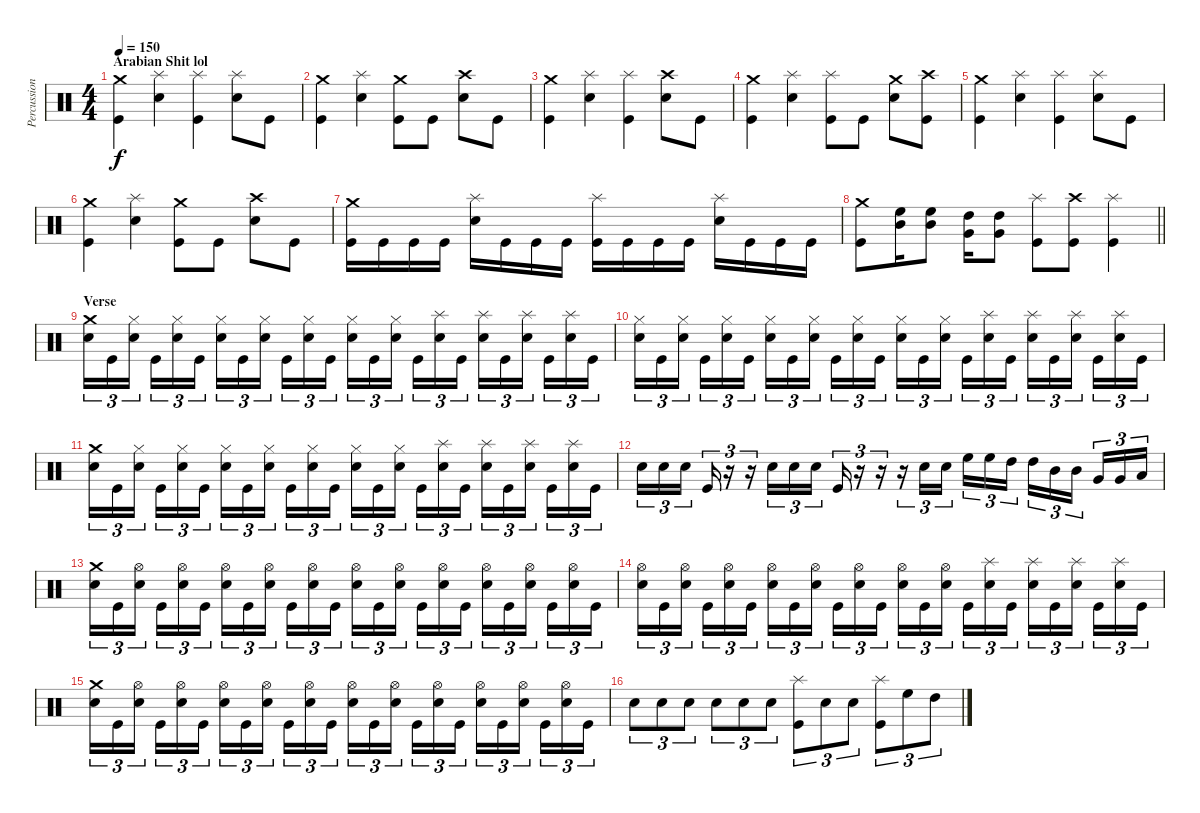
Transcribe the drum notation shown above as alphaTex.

\track ("Percussion" "Percussion") {instrument percussion}
\staff {score}
\articulation defaults
\ts (4 4)
\section ("" "Arabian Shit lol")
\tempo 150
\clef neutral
\ks c
("Crash medium (hit)" "Kick (hit)").4{dy f} ("Splash (hit)" "Snare (hit) 2").4 ("Splash (hit)" "Kick (hit)").4 ("Splash (hit)" "Snare (hit) 2").8 "Kick (hit)".8 |
("Crash medium (hit)" "Kick (hit)").4 ("Splash (hit)" "Snare (hit) 2").4 ("Crash medium (hit)" "Kick (hit)").8 "Kick (hit)".8 ("Crash high (hit)" "Snare (hit) 2").8 "Kick (hit)".8 |
("Crash medium (hit)" "Kick (hit)").4 ("Splash (hit)" "Snare (hit) 2").4 ("Splash (hit)" "Kick (hit)").4 ("Crash high (hit)" "Snare (hit) 2").8 "Kick (hit)".8 |
("Crash medium (hit)" "Kick (hit)").4 ("Splash (hit)" "Snare (hit) 2").4 ("Splash (hit)" "Kick (hit)").8 "Kick (hit)".8 ("Crash medium (hit)" "Snare (hit) 2").8 ("Crash high (hit)" "Kick (hit)").8 |
("Crash medium (hit)" "Kick (hit)").4 ("Splash (hit)" "Snare (hit) 2").4 ("Splash (hit)" "Kick (hit)").4 ("Splash (hit)" "Snare (hit) 2").8 "Kick (hit)".8 |
("Crash medium (hit)" "Kick (hit)").4 ("Splash (hit)" "Snare (hit) 2").4 ("Crash medium (hit)" "Kick (hit)").8 "Kick (hit)".8 ("Crash high (hit)" "Snare (hit) 2").8 "Kick (hit)".8 |
("Crash medium (hit)" "Kick (hit)").16 "Kick (hit)".16 "Kick (hit)".16 "Kick (hit)".16 ("Splash (hit)" "Snare (hit) 2").16 "Kick (hit)".16 "Kick (hit)".16 "Kick (hit)".16 ("Splash (hit)" "Kick (hit)").16 "Kick (hit)".16 "Kick (hit)".16 "Kick (hit)".16 ("Splash (hit)" "Snare (hit) 2").16 "Kick (hit)".16 "Kick (hit)".16 "Kick (hit)".16 |
\barLineRight lightlight
("Crash medium (hit)" "Kick (hit)").8 ("High Floor Tom (hit)" "Mid Tom (hit)").16 ("High Floor Tom (hit)" "Mid Tom (hit)").8 ("High Tom (hit)" "Very Low Tom (hit)").16 ("High Tom (hit)" "Very Low Tom (hit)").8 ("Splash (hit)" "Kick (hit)").8 ("Crash high (hit)" "Kick (hit)").8 ("Splash (hit)" "Kick (hit)").4 |
\section ("" "Verse")
("Crash medium (hit)" "Snare (hit) 2").16{tu (3 2)} "Kick (hit)".16{tu (3 2)} ("Hi-Hat (closed)" "Snare (hit) 2").16{tu (3 2) beam splitsecondary} "Kick (hit)".16{tu (3 2)} ("Hi-Hat (closed)" "Snare (hit) 2").16{tu (3 2)} "Kick (hit)".16{tu (3 2)} ("Hi-Hat (closed)" "Snare (hit) 2").16{tu (3 2)} "Kick (hit)".16{tu (3 2)} ("Hi-Hat (closed)" "Snare (hit) 2").16{tu (3 2) beam splitsecondary} "Kick (hit)".16{tu (3 2)} ("Hi-Hat (closed)" "Snare (hit) 2").16{tu (3 2)} "Kick (hit)".16{tu (3 2)} ("Hi-Hat (closed)" "Snare (hit) 2").16{tu (3 2)} "Kick (hit)".16{tu (3 2)} ("Hi-Hat (closed)" "Snare (hit) 2").16{tu (3 2) beam splitsecondary} "Kick (hit)".16{tu (3 2)} ("Splash (hit)" "Snare (hit) 2").16{tu (3 2)} "Kick (hit)".16{tu (3 2)} ("Splash (hit)" "Snare (hit) 2").16{tu (3 2)} "Kick (hit)".16{tu (3 2)} ("Splash (hit)" "Snare (hit) 2").16{tu (3 2) beam splitsecondary} "Kick (hit)".16{tu (3 2)} ("Splash (hit)" "Snare (hit) 2").16{tu (3 2)} "Kick (hit)".16{tu (3 2)} |
("Hi-Hat (closed)" "Snare (hit) 2").16{tu (3 2)} "Kick (hit)".16{tu (3 2)} ("Hi-Hat (closed)" "Snare (hit) 2").16{tu (3 2) beam splitsecondary} "Kick (hit)".16{tu (3 2)} ("Hi-Hat (closed)" "Snare (hit) 2").16{tu (3 2)} "Kick (hit)".16{tu (3 2)} ("Hi-Hat (closed)" "Snare (hit) 2").16{tu (3 2)} "Kick (hit)".16{tu (3 2)} ("Hi-Hat (closed)" "Snare (hit) 2").16{tu (3 2) beam splitsecondary} "Kick (hit)".16{tu (3 2)} ("Hi-Hat (closed)" "Snare (hit) 2").16{tu (3 2)} "Kick (hit)".16{tu (3 2)} ("Hi-Hat (closed)" "Snare (hit) 2").16{tu (3 2)} "Kick (hit)".16{tu (3 2)} ("Hi-Hat (closed)" "Snare (hit) 2").16{tu (3 2) beam splitsecondary} "Kick (hit)".16{tu (3 2)} ("Splash (hit)" "Snare (hit) 2").16{tu (3 2)} "Kick (hit)".16{tu (3 2)} ("Splash (hit)" "Snare (hit) 2").16{tu (3 2)} "Kick (hit)".16{tu (3 2)} ("Splash (hit)" "Snare (hit) 2").16{tu (3 2) beam splitsecondary} "Kick (hit)".16{tu (3 2)} ("Splash (hit)" "Snare (hit) 2").16{tu (3 2)} "Kick (hit)".16{tu (3 2)} |
("Crash medium (hit)" "Snare (hit) 2").16{tu (3 2)} "Kick (hit)".16{tu (3 2)} ("Hi-Hat (closed)" "Snare (hit) 2").16{tu (3 2) beam splitsecondary} "Kick (hit)".16{tu (3 2)} ("Hi-Hat (closed)" "Snare (hit) 2").16{tu (3 2)} "Kick (hit)".16{tu (3 2)} ("Hi-Hat (closed)" "Snare (hit) 2").16{tu (3 2)} "Kick (hit)".16{tu (3 2)} ("Hi-Hat (closed)" "Snare (hit) 2").16{tu (3 2) beam splitsecondary} "Kick (hit)".16{tu (3 2)} ("Hi-Hat (closed)" "Snare (hit) 2").16{tu (3 2)} "Kick (hit)".16{tu (3 2)} ("Hi-Hat (closed)" "Snare (hit) 2").16{tu (3 2)} "Kick (hit)".16{tu (3 2)} ("Hi-Hat (closed)" "Snare (hit) 2").16{tu (3 2) beam splitsecondary} "Kick (hit)".16{tu (3 2)} ("Splash (hit)" "Snare (hit) 2").16{tu (3 2)} "Kick (hit)".16{tu (3 2)} ("Splash (hit)" "Snare (hit) 2").16{tu (3 2)} "Kick (hit)".16{tu (3 2)} ("Splash (hit)" "Snare (hit) 2").16{tu (3 2) beam splitsecondary} "Kick (hit)".16{tu (3 2)} ("Splash (hit)" "Snare (hit) 2").16{tu (3 2)} "Kick (hit)".16{tu (3 2)} |
"Snare (hit) 2".16{tu (3 2)} "Snare (hit) 2".16{tu (3 2)} "Snare (hit) 2".16{tu (3 2) beam splitsecondary} "Kick (hit)".16{tu (3 2)} r.16{tu (3 2)} r.16{tu (3 2)} "Snare (hit) 2".16{tu (3 2)} "Snare (hit) 2".16{tu (3 2)} "Snare (hit) 2".16{tu (3 2) beam splitsecondary} "Kick (hit)".16{tu (3 2)} r.16{tu (3 2)} r.16{tu (3 2)} r.16{tu (3 2)} "Snare (hit) 2".16{tu (3 2)} "Snare (hit) 2".16{tu (3 2) beam splitsecondary} "High Floor Tom (hit)".16{tu (3 2)} "High Floor Tom (hit)".16{tu (3 2)} "High Tom (hit)".16{tu (3 2)} "High Tom (hit)".16{tu (3 2)} "Mid Tom (hit)".16{tu (3 2)} "Mid Tom (hit)".16{tu (3 2) beam splitsecondary} "Very Low Tom (hit)".16{tu (3 2)} "Very Low Tom (hit)".16{tu (3 2)} "Low Floor Tom (hit)".16{tu (3 2)} |
("Crash medium (hit)" "Snare (hit) 2").16{tu (3 2)} "Kick (hit)".16{tu (3 2)} ("Hi-Hat (open)" "Snare (hit) 2").16{tu (3 2) beam splitsecondary} "Kick (hit)".16{tu (3 2)} ("Hi-Hat (open)" "Snare (hit) 2").16{tu (3 2)} "Kick (hit)".16{tu (3 2)} ("Hi-Hat (open)" "Snare (hit) 2").16{tu (3 2)} "Kick (hit)".16{tu (3 2)} ("Hi-Hat (open)" "Snare (hit) 2").16{tu (3 2) beam splitsecondary} "Kick (hit)".16{tu (3 2)} ("Hi-Hat (open)" "Snare (hit) 2").16{tu (3 2)} "Kick (hit)".16{tu (3 2)} ("Hi-Hat (open)" "Snare (hit) 2").16{tu (3 2)} "Kick (hit)".16{tu (3 2)} ("Hi-Hat (open)" "Snare (hit) 2").16{tu (3 2) beam splitsecondary} "Kick (hit)".16{tu (3 2)} ("Hi-Hat (open)" "Snare (hit) 2").16{tu (3 2)} "Kick (hit)".16{tu (3 2)} ("Hi-Hat (open)" "Snare (hit) 2").16{tu (3 2)} "Kick (hit)".16{tu (3 2)} ("Hi-Hat (open)" "Snare (hit) 2").16{tu (3 2) beam splitsecondary} "Kick (hit)".16{tu (3 2)} ("Hi-Hat (open)" "Snare (hit) 2").16{tu (3 2)} "Kick (hit)".16{tu (3 2)} |
("Hi-Hat (open)" "Snare (hit) 2").16{tu (3 2)} "Kick (hit)".16{tu (3 2)} ("Hi-Hat (open)" "Snare (hit) 2").16{tu (3 2) beam splitsecondary} "Kick (hit)".16{tu (3 2)} ("Hi-Hat (open)" "Snare (hit) 2").16{tu (3 2)} "Kick (hit)".16{tu (3 2)} ("Hi-Hat (open)" "Snare (hit) 2").16{tu (3 2)} "Kick (hit)".16{tu (3 2)} ("Hi-Hat (open)" "Snare (hit) 2").16{tu (3 2) beam splitsecondary} "Kick (hit)".16{tu (3 2)} ("Hi-Hat (open)" "Snare (hit) 2").16{tu (3 2)} "Kick (hit)".16{tu (3 2)} ("Hi-Hat (open)" "Snare (hit) 2").16{tu (3 2)} "Kick (hit)".16{tu (3 2)} ("Hi-Hat (open)" "Snare (hit) 2").16{tu (3 2) beam splitsecondary} "Kick (hit)".16{tu (3 2)} ("Splash (hit)" "Snare (hit) 2").16{tu (3 2)} "Kick (hit)".16{tu (3 2)} ("Splash (hit)" "Snare (hit) 2").16{tu (3 2)} "Kick (hit)".16{tu (3 2)} ("Splash (hit)" "Snare (hit) 2").16{tu (3 2) beam splitsecondary} "Kick (hit)".16{tu (3 2)} ("Splash (hit)" "Snare (hit) 2").16{tu (3 2)} "Kick (hit)".16{tu (3 2)} |
("Crash medium (hit)" "Snare (hit) 2").16{tu (3 2)} "Kick (hit)".16{tu (3 2)} ("Hi-Hat (open)" "Snare (hit) 2").16{tu (3 2) beam splitsecondary} "Kick (hit)".16{tu (3 2)} ("Hi-Hat (open)" "Snare (hit) 2").16{tu (3 2)} "Kick (hit)".16{tu (3 2)} ("Hi-Hat (open)" "Snare (hit) 2").16{tu (3 2)} "Kick (hit)".16{tu (3 2)} ("Hi-Hat (open)" "Snare (hit) 2").16{tu (3 2) beam splitsecondary} "Kick (hit)".16{tu (3 2)} ("Hi-Hat (open)" "Snare (hit) 2").16{tu (3 2)} "Kick (hit)".16{tu (3 2)} ("Hi-Hat (open)" "Snare (hit) 2").16{tu (3 2)} "Kick (hit)".16{tu (3 2)} ("Hi-Hat (open)" "Snare (hit) 2").16{tu (3 2) beam splitsecondary} "Kick (hit)".16{tu (3 2)} ("Hi-Hat (open)" "Snare (hit) 2").16{tu (3 2)} "Kick (hit)".16{tu (3 2)} ("Hi-Hat (open)" "Snare (hit) 2").16{tu (3 2)} "Kick (hit)".16{tu (3 2)} ("Hi-Hat (open)" "Snare (hit) 2").16{tu (3 2) beam splitsecondary} "Kick (hit)".16{tu (3 2)} ("Hi-Hat (open)" "Snare (hit) 2").16{tu (3 2)} "Kick (hit)".16{tu (3 2)} |
"Snare (hit) 2".8{tu (3 2)} "Snare (hit) 2".8{tu (3 2)} "Snare (hit) 2".8{tu (3 2)} "Snare (hit) 2".8{tu (3 2)} "Snare (hit) 2".8{tu (3 2)} "Snare (hit) 2".8{tu (3 2)} ("Splash (hit)" "Kick (hit)").8{tu (3 2)} "Snare (hit) 2".8{tu (3 2)} "Snare (hit) 2".8{tu (3 2)} ("Splash (hit)" "Kick (hit)").8{tu (3 2)} "High Floor Tom (hit)".8{tu (3 2)} "High Tom (hit)".8{tu (3 2)}
